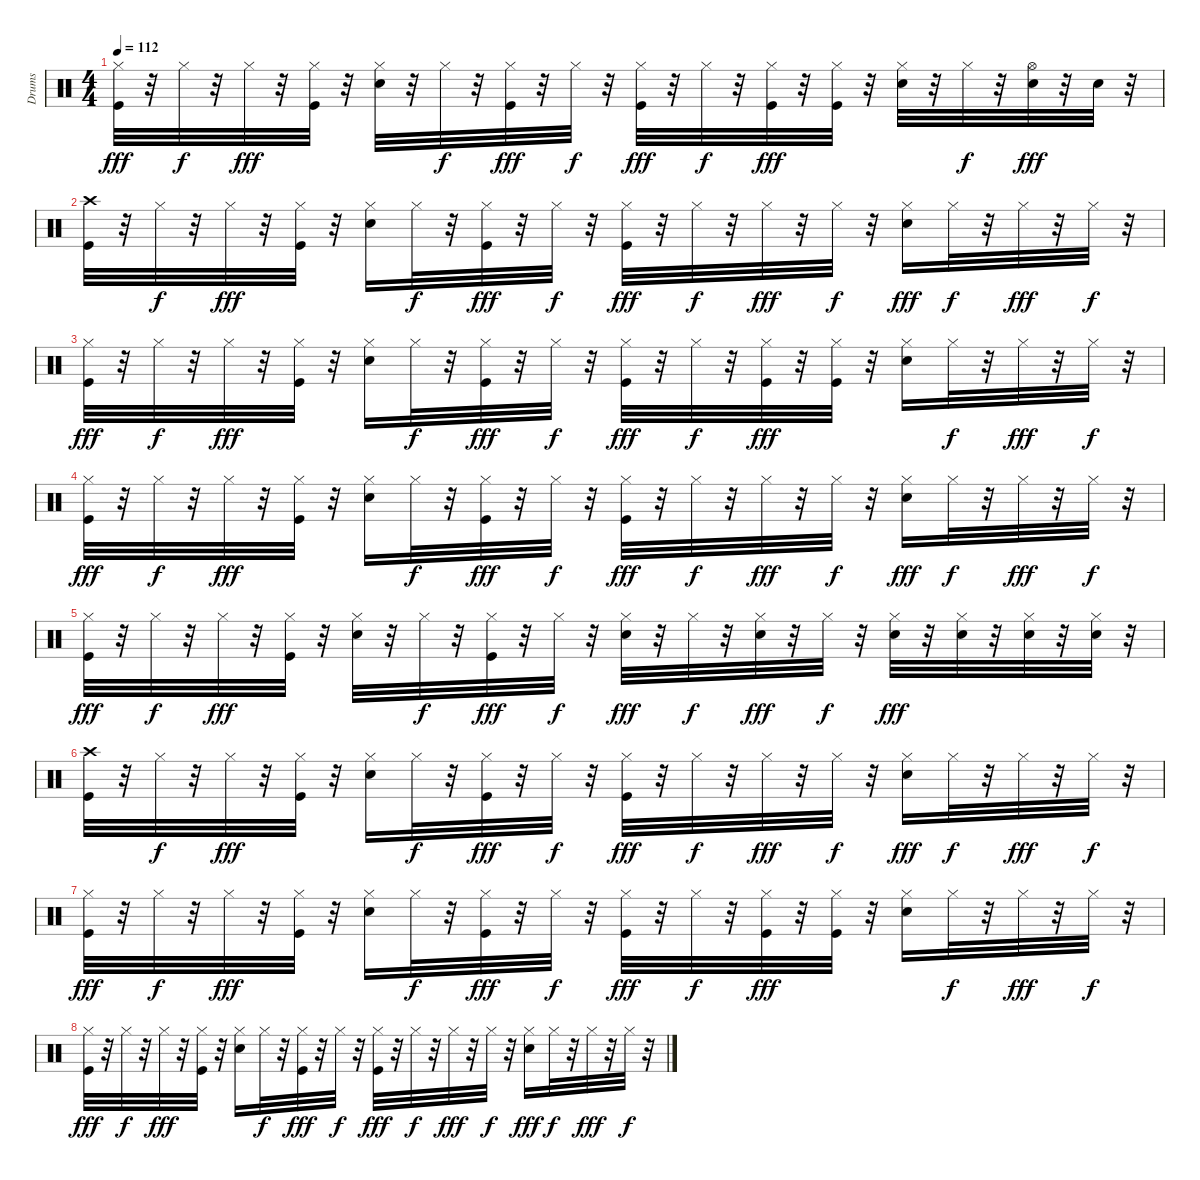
\track ("Drums" "Drums") {instrument percussion}
\staff {score}
\articulation defaults
\ts (4 4)
\tempo 112
\clef neutral
\ks c
("Kick (hit)" "Hi-Hat (closed)").32{dy fff} r.32 "Hi-Hat (closed)".32{dy f} r.32 "Hi-Hat (closed)".32{dy fff} r.32 ("Kick (hit)" "Hi-Hat (closed)").32 r.32 ("Snare (hit) 2" "Hi-Hat (closed)").32 r.32 "Hi-Hat (closed)".32{dy f} r.32 ("Kick (hit)" "Hi-Hat (closed)").32{dy fff} r.32 "Hi-Hat (closed)".32{dy f} r.32 ("Kick (hit)" "Hi-Hat (closed)").32{dy fff} r.32 "Hi-Hat (closed)".32{dy f} r.32 ("Kick (hit)" "Hi-Hat (closed)").32{dy fff} r.32 ("Kick (hit)" "Hi-Hat (closed)").32 r.32 ("Snare (hit) 2" "Hi-Hat (closed)").32 r.32 "Hi-Hat (closed)".32{dy f} r.32 ("Snare (hit) 2" "Hi-Hat (open)").32{dy fff} r.32 "Snare (hit) 2".32 r.32 |
("Kick (hit)" "Crash high (hit)").32 r.32 "Hi-Hat (closed)".32{dy f} r.32 "Hi-Hat (closed)".32{dy fff} r.32 ("Kick (hit)" "Hi-Hat (closed)").32 r.32 ("Snare (hit) 2" "Hi-Hat (closed)").16 "Hi-Hat (closed)".32{dy f} r.32 ("Kick (hit)" "Hi-Hat (closed)").32{dy fff} r.32 "Hi-Hat (closed)".32{dy f} r.32 ("Kick (hit)" "Hi-Hat (closed)").32{dy fff} r.32 "Hi-Hat (closed)".32{dy f} r.32 "Hi-Hat (closed)".32{dy fff} r.32 "Hi-Hat (closed)".32{dy f} r.32 ("Snare (hit) 2" "Hi-Hat (closed)").16{dy fff} "Hi-Hat (closed)".32{dy f} r.32 "Hi-Hat (closed)".32{dy fff} r.32 "Hi-Hat (closed)".32{dy f} r.32 |
("Kick (hit)" "Hi-Hat (closed)").32{dy fff} r.32 "Hi-Hat (closed)".32{dy f} r.32 "Hi-Hat (closed)".32{dy fff} r.32 ("Kick (hit)" "Hi-Hat (closed)").32 r.32 ("Snare (hit) 2" "Hi-Hat (closed)").16 "Hi-Hat (closed)".32{dy f} r.32 ("Kick (hit)" "Hi-Hat (closed)").32{dy fff} r.32 "Hi-Hat (closed)".32{dy f} r.32 ("Kick (hit)" "Hi-Hat (closed)").32{dy fff} r.32 "Hi-Hat (closed)".32{dy f} r.32 ("Kick (hit)" "Hi-Hat (closed)").32{dy fff} r.32 ("Kick (hit)" "Hi-Hat (closed)").32 r.32 ("Snare (hit) 2" "Hi-Hat (closed)").16 "Hi-Hat (closed)".32{dy f} r.32 "Hi-Hat (closed)".32{dy fff} r.32 "Hi-Hat (closed)".32{dy f} r.32 |
("Kick (hit)" "Hi-Hat (closed)").32{dy fff} r.32 "Hi-Hat (closed)".32{dy f} r.32 "Hi-Hat (closed)".32{dy fff} r.32 ("Kick (hit)" "Hi-Hat (closed)").32 r.32 ("Snare (hit) 2" "Hi-Hat (closed)").16 "Hi-Hat (closed)".32{dy f} r.32 ("Kick (hit)" "Hi-Hat (closed)").32{dy fff} r.32 "Hi-Hat (closed)".32{dy f} r.32 ("Kick (hit)" "Hi-Hat (closed)").32{dy fff} r.32 "Hi-Hat (closed)".32{dy f} r.32 "Hi-Hat (closed)".32{dy fff} r.32 "Hi-Hat (closed)".32{dy f} r.32 ("Snare (hit) 2" "Hi-Hat (closed)").16{dy fff} "Hi-Hat (closed)".32{dy f} r.32 "Hi-Hat (closed)".32{dy fff} r.32 "Hi-Hat (closed)".32{dy f} r.32 |
("Kick (hit)" "Hi-Hat (closed)").32{dy fff} r.32 "Hi-Hat (closed)".32{dy f} r.32 "Hi-Hat (closed)".32{dy fff} r.32 ("Kick (hit)" "Hi-Hat (closed)").32 r.32 ("Snare (hit) 2" "Hi-Hat (closed)").32 r.32 "Hi-Hat (closed)".32{dy f} r.32 ("Kick (hit)" "Hi-Hat (closed)").32{dy fff} r.32 "Hi-Hat (closed)".32{dy f} r.32 ("Snare (hit) 2" "Hi-Hat (closed)").32{dy fff} r.32 "Hi-Hat (closed)".32{dy f} r.32 ("Snare (hit) 2" "Hi-Hat (closed)").32{dy fff} r.32 "Hi-Hat (closed)".32{dy f} r.32 ("Snare (hit) 2" "Hi-Hat (closed)").32{dy fff} r.32 ("Snare (hit) 2" "Hi-Hat (closed)").32 r.32 ("Snare (hit) 2" "Hi-Hat (closed)").32 r.32 ("Snare (hit) 2" "Hi-Hat (closed)").32 r.32 |
("Kick (hit)" "Crash high (hit)").32 r.32 "Hi-Hat (closed)".32{dy f} r.32 "Hi-Hat (closed)".32{dy fff} r.32 ("Kick (hit)" "Hi-Hat (closed)").32 r.32 ("Snare (hit) 2" "Hi-Hat (closed)").16 "Hi-Hat (closed)".32{dy f} r.32 ("Kick (hit)" "Hi-Hat (closed)").32{dy fff} r.32 "Hi-Hat (closed)".32{dy f} r.32 ("Kick (hit)" "Hi-Hat (closed)").32{dy fff} r.32 "Hi-Hat (closed)".32{dy f} r.32 "Hi-Hat (closed)".32{dy fff} r.32 "Hi-Hat (closed)".32{dy f} r.32 ("Snare (hit) 2" "Hi-Hat (closed)").16{dy fff} "Hi-Hat (closed)".32{dy f} r.32 "Hi-Hat (closed)".32{dy fff} r.32 "Hi-Hat (closed)".32{dy f} r.32 |
("Kick (hit)" "Hi-Hat (closed)").32{dy fff} r.32 "Hi-Hat (closed)".32{dy f} r.32 "Hi-Hat (closed)".32{dy fff} r.32 ("Kick (hit)" "Hi-Hat (closed)").32 r.32 ("Snare (hit) 2" "Hi-Hat (closed)").16 "Hi-Hat (closed)".32{dy f} r.32 ("Kick (hit)" "Hi-Hat (closed)").32{dy fff} r.32 "Hi-Hat (closed)".32{dy f} r.32 ("Kick (hit)" "Hi-Hat (closed)").32{dy fff} r.32 "Hi-Hat (closed)".32{dy f} r.32 ("Kick (hit)" "Hi-Hat (closed)").32{dy fff} r.32 ("Kick (hit)" "Hi-Hat (closed)").32 r.32 ("Snare (hit) 2" "Hi-Hat (closed)").16 "Hi-Hat (closed)".32{dy f} r.32 "Hi-Hat (closed)".32{dy fff} r.32 "Hi-Hat (closed)".32{dy f} r.32 |
("Kick (hit)" "Hi-Hat (closed)").32{dy fff} r.32 "Hi-Hat (closed)".32{dy f} r.32 "Hi-Hat (closed)".32{dy fff} r.32 ("Kick (hit)" "Hi-Hat (closed)").32 r.32 ("Snare (hit) 2" "Hi-Hat (closed)").16 "Hi-Hat (closed)".32{dy f} r.32 ("Kick (hit)" "Hi-Hat (closed)").32{dy fff} r.32 "Hi-Hat (closed)".32{dy f} r.32 ("Kick (hit)" "Hi-Hat (closed)").32{dy fff} r.32 "Hi-Hat (closed)".32{dy f} r.32 "Hi-Hat (closed)".32{dy fff} r.32 "Hi-Hat (closed)".32{dy f} r.32 ("Snare (hit) 2" "Hi-Hat (closed)").16{dy fff} "Hi-Hat (closed)".32{dy f} r.32 "Hi-Hat (closed)".32{dy fff} r.32 "Hi-Hat (closed)".32{dy f} r.32
